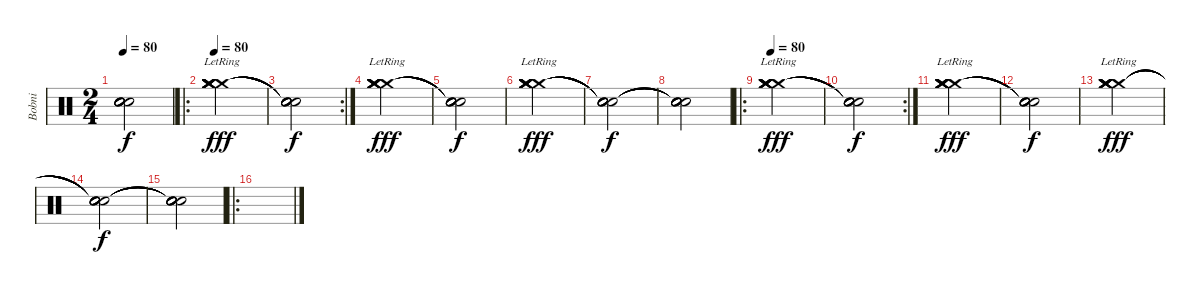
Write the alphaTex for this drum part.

\track ("Bobni" "Bobni") {instrument percussion}
\staff {score}
\articulation defaults
\ts (2 4)
\tempo 80
\clef neutral
\ks c
("Snare (hit)"{t} "Snare (hit)"{t} "Snare (hit)"{t} "Snare (hit)"{t} "Snare (hit)"{t} "Snare (hit)"{t}).2{dy f} |
\ro
\tempo 80
("Crash medium (hit)"{lr} "Crash medium (hit)"{lr} "Crash medium (hit)"{lr} "Crash medium (hit)"{lr} "Crash medium (hit)"{lr} "Crash medium (hit)"{lr}).2{dy fff} |
\rc 2
("Snare (hit)"{t} "Snare (hit)"{t} "Snare (hit)"{t} "Snare (hit)"{t} "Snare (hit)"{t} "Snare (hit)"{t}).2{dy f} |
("Crash medium (hit)"{lr} "Crash medium (hit)"{lr} "Crash medium (hit)"{lr} "Crash medium (hit)"{lr} "Crash medium (hit)"{lr} "Crash medium (hit)"{lr}).2{dy fff} |
("Snare (hit)"{t} "Snare (hit)"{t} "Snare (hit)"{t} "Snare (hit)"{t} "Snare (hit)"{t} "Snare (hit)"{t}).2{dy f} |
("Crash medium (hit)"{lr} "Crash medium (hit)"{lr} "Crash medium (hit)"{lr} "Crash medium (hit)"{lr} "Crash medium (hit)"{lr} "Crash medium (hit)"{lr}).2{dy fff} |
("Snare (hit)"{t} "Snare (hit)"{t} "Snare (hit)"{t} "Snare (hit)"{t} "Snare (hit)"{t} "Snare (hit)"{t}).2{dy f} |
("Snare (hit)"{t} "Snare (hit)"{t} "Snare (hit)"{t} "Snare (hit)"{t} "Snare (hit)"{t} "Snare (hit)"{t}).2 |
\ro
\tempo 80
("Crash medium (hit)"{lr} "Crash medium (hit)"{lr} "Crash medium (hit)"{lr} "Crash medium (hit)"{lr} "Crash medium (hit)"{lr} "Crash medium (hit)"{lr}).2{dy fff} |
\rc 2
("Snare (hit)"{t} "Snare (hit)"{t} "Snare (hit)"{t} "Snare (hit)"{t} "Snare (hit)"{t} "Snare (hit)"{t}).2{dy f} |
("Crash medium (hit)"{lr} "Crash medium (hit)"{lr} "Crash medium (hit)"{lr} "Crash medium (hit)"{lr} "Crash medium (hit)"{lr} "Crash medium (hit)"{lr}).2{dy fff} |
("Snare (hit)"{t} "Snare (hit)"{t} "Snare (hit)"{t} "Snare (hit)"{t} "Snare (hit)"{t} "Snare (hit)"{t}).2{dy f} |
("Crash medium (hit)"{lr} "Crash medium (hit)"{lr} "Crash medium (hit)"{lr} "Crash medium (hit)"{lr} "Crash medium (hit)"{lr} "Crash medium (hit)"{lr}).2{dy fff} |
("Snare (hit)"{t} "Snare (hit)"{t} "Snare (hit)"{t} "Snare (hit)"{t} "Snare (hit)"{t} "Snare (hit)"{t}).2{dy f} |
("Snare (hit)"{t} "Snare (hit)"{t} "Snare (hit)"{t} "Snare (hit)"{t} "Snare (hit)"{t} "Snare (hit)"{t}).2 |
\ro
